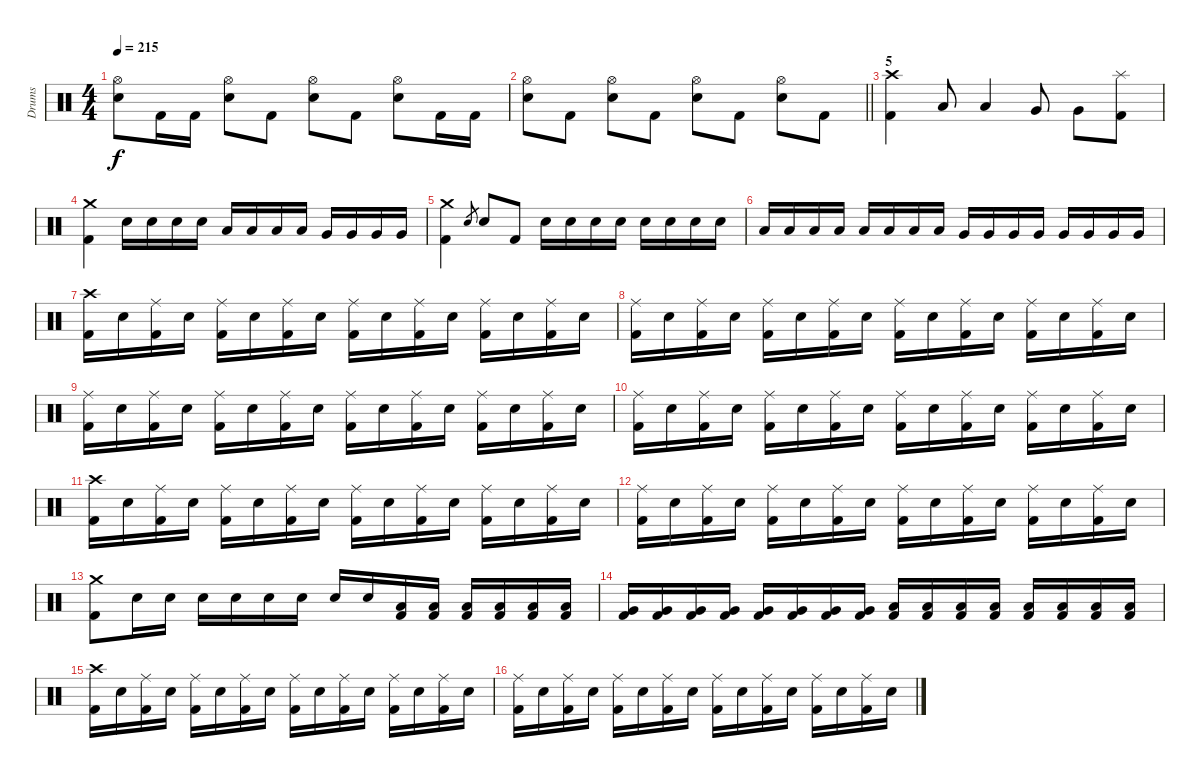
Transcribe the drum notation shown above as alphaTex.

\track ("Drums" "Drums") {instrument percussion}
\staff {score}
\articulation defaults
\ts (4 4)
\tempo 215
\clef neutral
\ks c
("Hi-Hat (open)" "Electric Snare (hit)").8{dy f} "Kick (hit) 2".16 "Kick (hit) 2".16 ("Hi-Hat (open)" "Electric Snare (hit)").8 "Kick (hit) 2".8 ("Hi-Hat (open)" "Electric Snare (hit)").8 "Kick (hit) 2".8 ("Hi-Hat (open)" "Electric Snare (hit)").8 "Kick (hit) 2".16 "Kick (hit) 2".16 |
\barLineRight lightlight
("Hi-Hat (open)" "Electric Snare (hit)").8 "Kick (hit) 2".8 ("Hi-Hat (open)" "Electric Snare (hit)").8 "Kick (hit) 2".8 ("Hi-Hat (open)" "Electric Snare (hit)").8 "Kick (hit) 2".8 ("Hi-Hat (open)" "Electric Snare (hit)").8 "Kick (hit) 2".8 |
\section ("" "5")
("Crash high (hit)" "Kick (hit) 2").4 "Low Tom (hit)".8 "Low Tom (hit)".4 "Very Low Tom (hit)".8 "Very Low Tom (hit)".8 ("Splash (hit)" "Kick (hit) 2").8 |
("Crash medium (hit)" "Kick (hit) 2").4 "Electric Snare (hit)".16 "Electric Snare (hit)".16 "Electric Snare (hit)".16 "Electric Snare (hit)".16 "Low Tom (hit)".16 "Low Tom (hit)".16 "Low Tom (hit)".16 "Low Tom (hit)".16 "Very Low Tom (hit)".16 "Very Low Tom (hit)".16 "Very Low Tom (hit)".16 "Very Low Tom (hit)".16 |
("Crash medium (hit)" "Kick (hit) 2").4 "Electric Snare (hit)".8{gr} "Electric Snare (hit)".8 "Kick (hit) 2".8 "Electric Snare (hit)".16 "Electric Snare (hit)".16 "Electric Snare (hit)".16 "Electric Snare (hit)".16 "Electric Snare (hit)".16 "Electric Snare (hit)".16 "Electric Snare (hit)".16 "Electric Snare (hit)".16 |
"Low Tom (hit)".16 "Low Tom (hit)".16 "Low Tom (hit)".16 "Low Tom (hit)".16 "Low Tom (hit)".16 "Low Tom (hit)".16 "Low Tom (hit)".16 "Low Tom (hit)".16 "Very Low Tom (hit)".16 "Very Low Tom (hit)".16 "Very Low Tom (hit)".16 "Very Low Tom (hit)".16 "Very Low Tom (hit)".16 "Very Low Tom (hit)".16 "Very Low Tom (hit)".16 "Very Low Tom (hit)".16 |
("Crash high (hit)" "Kick (hit) 2").16 "Electric Snare (hit)".16 ("Ride (middle)" "Kick (hit) 2").16 "Electric Snare (hit)".16 ("Ride (middle)" "Kick (hit) 2").16 "Electric Snare (hit)".16 ("Ride (middle)" "Kick (hit) 2").16 "Electric Snare (hit)".16 ("Ride (middle)" "Kick (hit) 2").16 "Electric Snare (hit)".16 ("Ride (middle)" "Kick (hit) 2").16 "Electric Snare (hit)".16 ("Ride (middle)" "Kick (hit) 2").16 "Electric Snare (hit)".16 ("Ride (middle)" "Kick (hit) 2").16 "Electric Snare (hit)".16 |
("Ride (middle)" "Kick (hit) 2").16 "Electric Snare (hit)".16 ("Ride (middle)" "Kick (hit) 2").16 "Electric Snare (hit)".16 ("Ride (middle)" "Kick (hit) 2").16 "Electric Snare (hit)".16 ("Ride (middle)" "Kick (hit) 2").16 "Electric Snare (hit)".16 ("Ride (middle)" "Kick (hit) 2").16 "Electric Snare (hit)".16 ("Ride (middle)" "Kick (hit) 2").16 "Electric Snare (hit)".16 ("Ride (middle)" "Kick (hit) 2").16 "Electric Snare (hit)".16 ("Ride (middle)" "Kick (hit) 2").16 "Electric Snare (hit)".16 |
("Ride (middle)" "Kick (hit) 2").16 "Electric Snare (hit)".16 ("Ride (middle)" "Kick (hit) 2").16 "Electric Snare (hit)".16 ("Ride (middle)" "Kick (hit) 2").16 "Electric Snare (hit)".16 ("Ride (middle)" "Kick (hit) 2").16 "Electric Snare (hit)".16 ("Ride (middle)" "Kick (hit) 2").16 "Electric Snare (hit)".16 ("Ride (middle)" "Kick (hit) 2").16 "Electric Snare (hit)".16 ("Ride (middle)" "Kick (hit) 2").16 "Electric Snare (hit)".16 ("Ride (middle)" "Kick (hit) 2").16 "Electric Snare (hit)".16 |
("Ride (middle)" "Kick (hit) 2").16 "Electric Snare (hit)".16 ("Ride (middle)" "Kick (hit) 2").16 "Electric Snare (hit)".16 ("Ride (middle)" "Kick (hit) 2").16 "Electric Snare (hit)".16 ("Ride (middle)" "Kick (hit) 2").16 "Electric Snare (hit)".16 ("Ride (middle)" "Kick (hit) 2").16 "Electric Snare (hit)".16 ("Ride (middle)" "Kick (hit) 2").16 "Electric Snare (hit)".16 ("Ride (middle)" "Kick (hit) 2").16 "Electric Snare (hit)".16 ("Ride (middle)" "Kick (hit) 2").16 "Electric Snare (hit)".16 |
("Crash high (hit)" "Kick (hit) 2").16 "Electric Snare (hit)".16 ("Ride (middle)" "Kick (hit) 2").16 "Electric Snare (hit)".16 ("Ride (middle)" "Kick (hit) 2").16 "Electric Snare (hit)".16 ("Ride (middle)" "Kick (hit) 2").16 "Electric Snare (hit)".16 ("Ride (middle)" "Kick (hit) 2").16 "Electric Snare (hit)".16 ("Ride (middle)" "Kick (hit) 2").16 "Electric Snare (hit)".16 ("Ride (middle)" "Kick (hit) 2").16 "Electric Snare (hit)".16 ("Ride (middle)" "Kick (hit) 2").16 "Electric Snare (hit)".16 |
("Ride (middle)" "Kick (hit) 2").16 "Electric Snare (hit)".16 ("Ride (middle)" "Kick (hit) 2").16 "Electric Snare (hit)".16 ("Ride (middle)" "Kick (hit) 2").16 "Electric Snare (hit)".16 ("Ride (middle)" "Kick (hit) 2").16 "Electric Snare (hit)".16 ("Ride (middle)" "Kick (hit) 2").16 "Electric Snare (hit)".16 ("Ride (middle)" "Kick (hit) 2").16 "Electric Snare (hit)".16 ("Ride (middle)" "Kick (hit) 2").16 "Electric Snare (hit)".16 ("Ride (middle)" "Kick (hit) 2").16 "Electric Snare (hit)".16 |
("Crash medium (hit)" "Kick (hit) 2").8 "Electric Snare (hit)".16 "Electric Snare (hit)".16 "Electric Snare (hit)".16 "Electric Snare (hit)".16 "Electric Snare (hit)".16 "Electric Snare (hit)".16 "Electric Snare (hit)".16 "Electric Snare (hit)".16 ("Low Tom (hit)" "Kick (hit) 2").16 ("Low Tom (hit)" "Kick (hit) 2").16 ("Low Tom (hit)" "Kick (hit) 2").16 ("Low Tom (hit)" "Kick (hit) 2").16 ("Low Tom (hit)" "Kick (hit) 2").16 ("Low Tom (hit)" "Kick (hit) 2").16 |
("Very Low Tom (hit)" "Kick (hit) 2").16 ("Very Low Tom (hit)" "Kick (hit) 2").16 ("Very Low Tom (hit)" "Kick (hit) 2").16 ("Very Low Tom (hit)" "Kick (hit) 2").16 ("Very Low Tom (hit)" "Kick (hit) 2").16 ("Very Low Tom (hit)" "Kick (hit) 2").16 ("Very Low Tom (hit)" "Kick (hit) 2").16 ("Very Low Tom (hit)" "Kick (hit) 2").16 ("Low Floor Tom (hit)" "Kick (hit) 2").16 ("Low Floor Tom (hit)" "Kick (hit) 2").16 ("Low Floor Tom (hit)" "Kick (hit) 2").16 ("Low Floor Tom (hit)" "Kick (hit) 2").16 ("Low Floor Tom (hit)" "Kick (hit) 2").16 ("Low Floor Tom (hit)" "Kick (hit) 2").16 ("Low Floor Tom (hit)" "Kick (hit) 2").16 ("Low Floor Tom (hit)" "Kick (hit) 2").16 |
("Crash high (hit)" "Kick (hit) 2").16 "Electric Snare (hit)".16 ("Ride (middle)" "Kick (hit) 2").16 "Electric Snare (hit)".16 ("Ride (middle)" "Kick (hit) 2").16 "Electric Snare (hit)".16 ("Ride (middle)" "Kick (hit) 2").16 "Electric Snare (hit)".16 ("Ride (middle)" "Kick (hit) 2").16 "Electric Snare (hit)".16 ("Ride (middle)" "Kick (hit) 2").16 "Electric Snare (hit)".16 ("Ride (middle)" "Kick (hit) 2").16 "Electric Snare (hit)".16 ("Ride (middle)" "Kick (hit) 2").16 "Electric Snare (hit)".16 |
("Ride (middle)" "Kick (hit) 2").16 "Electric Snare (hit)".16 ("Ride (middle)" "Kick (hit) 2").16 "Electric Snare (hit)".16 ("Ride (middle)" "Kick (hit) 2").16 "Electric Snare (hit)".16 ("Ride (middle)" "Kick (hit) 2").16 "Electric Snare (hit)".16 ("Ride (middle)" "Kick (hit) 2").16 "Electric Snare (hit)".16 ("Ride (middle)" "Kick (hit) 2").16 "Electric Snare (hit)".16 ("Ride (middle)" "Kick (hit) 2").16 "Electric Snare (hit)".16 ("Ride (middle)" "Kick (hit) 2").16 "Electric Snare (hit)".16
